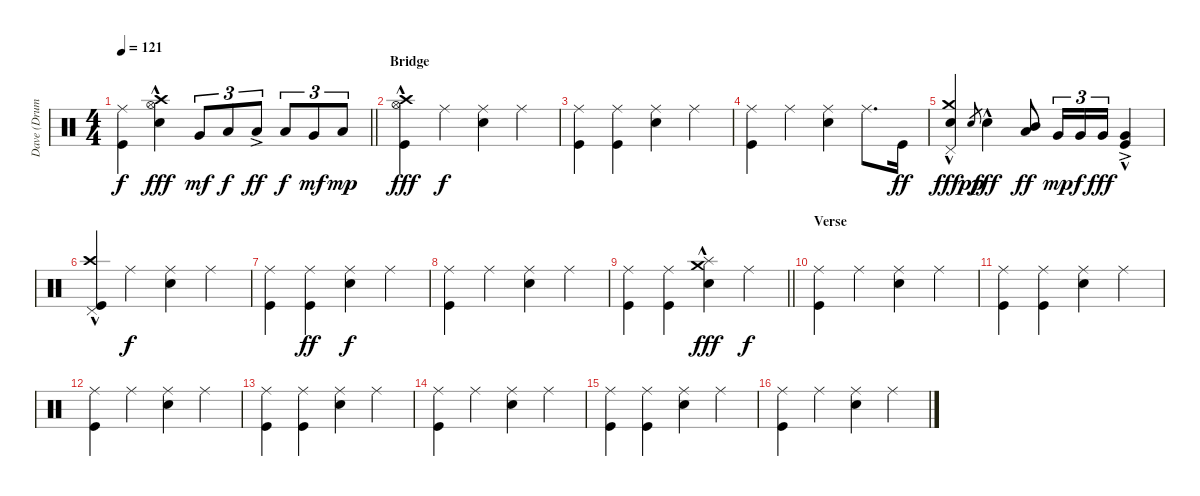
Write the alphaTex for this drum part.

\track ("Dave (Drums)" "Dave (Drum") {instrument percussion}
\staff {score}
\articulation defaults
\ts (4 4)
\tempo 121
\clef neutral
\barLineRight lightlight
\ks c
("Ride (middle)" "Kick (hit)").4{dy f} ("Hi-Hat (open)" "Crash high (hit)"{hac} "Snare (hit) 2"{hac}).4{dy fff} "Very Low Tom (hit)".8{tu (3 2) dy mf} "Low Tom (hit)".8{tu (3 2) dy f} "Low Tom (hit)"{ac}.8{tu (3 2) dy ff} "Low Tom (hit)".8{tu (3 2) dy f} "Very Low Tom (hit)".8{tu (3 2) dy mf} "Low Floor Tom (hit)".8{tu (3 2) dy mp} |
\section ("" "Bridge")
("Crash high (hit)"{hac} "Hi-Hat (open)"{hac} "Kick (hit)").4{dy fff} "Ride (middle)".4{dy f} ("Ride (middle)" "Snare (hit) 2").4 "Ride (middle)".4 |
("Ride (middle)" "Kick (hit)").4 ("Ride (middle)" "Kick (hit)").4 ("Ride (middle)" "Snare (hit) 2").4 "Ride (middle)".4 |
("Ride (middle)" "Kick (hit)").4 "Ride (middle)".4 ("Ride (middle)" "Snare (hit) 2").4 "Ride (middle)".8{d} "Kick (hit)".16{dy ff} |
("Crash medium (hit)" "Pedal Hi-Hat (hit)" "Snare (hit) 2"{hac}).4{dy fff} "Snare (hit) 2".8{gr dy pp} "Snare (hit) 2"{hac}.4{dy fff} ("Mid Tom (hit)" "Low Tom (hit)").8{dy ff} "Very Low Tom (hit)".16{tu (3 2) dy mp} "Very Low Tom (hit)".16{tu (3 2) dy f} "Very Low Tom (hit)".16{tu (3 2) dy fff} ("Very Low Tom (hit)"{ac} "Kick (hit)"{hac}).4 |
("Crash high (hit)"{hac} "Pedal Hi-Hat (hit)"{hac} "Kick (hit)").4 "Ride (middle)".4{dy f} ("Ride (middle)" "Snare (hit) 2").4 "Ride (middle)".4 |
("Ride (middle)" "Kick (hit)").4 ("Ride (middle)" "Kick (hit)").4{dy ff} ("Ride (middle)" "Snare (hit) 2").4{dy f} "Ride (middle)".4 |
("Ride (middle)" "Kick (hit)").4 "Ride (middle)".4 ("Ride (middle)" "Snare (hit) 2").4 "Ride (middle)".4 |
\barLineRight lightlight
("Ride (middle)" "Kick (hit)").4 ("Ride (middle)" "Kick (hit)").4 ("Crash medium (hit)"{hac} "Splash (hit)" "Snare (hit) 2").4{dy fff} "Ride (middle)".4{dy f} |
\section ("" "Verse")
("Ride (middle)" "Kick (hit)").4 "Ride (middle)".4 ("Ride (middle)" "Snare (hit) 2").4 "Ride (middle)".4 |
("Ride (middle)" "Kick (hit)").4 ("Ride (middle)" "Kick (hit)").4 ("Ride (middle)" "Snare (hit) 2").4 "Ride (middle)".4 |
("Ride (middle)" "Kick (hit)").4 "Ride (middle)".4 ("Ride (middle)" "Snare (hit) 2").4 "Ride (middle)".4 |
("Ride (middle)" "Kick (hit)").4 ("Ride (middle)" "Kick (hit)").4 ("Ride (middle)" "Snare (hit) 2").4 "Ride (middle)".4 |
("Ride (middle)" "Kick (hit)").4 "Ride (middle)".4 ("Ride (middle)" "Snare (hit) 2").4 "Ride (middle)".4 |
("Ride (middle)" "Kick (hit)").4 ("Ride (middle)" "Kick (hit)").4 ("Ride (middle)" "Snare (hit) 2").4 "Ride (middle)".4 |
("Ride (middle)" "Kick (hit)").4 "Ride (middle)".4 ("Ride (middle)" "Snare (hit) 2").4 "Ride (middle)".4
